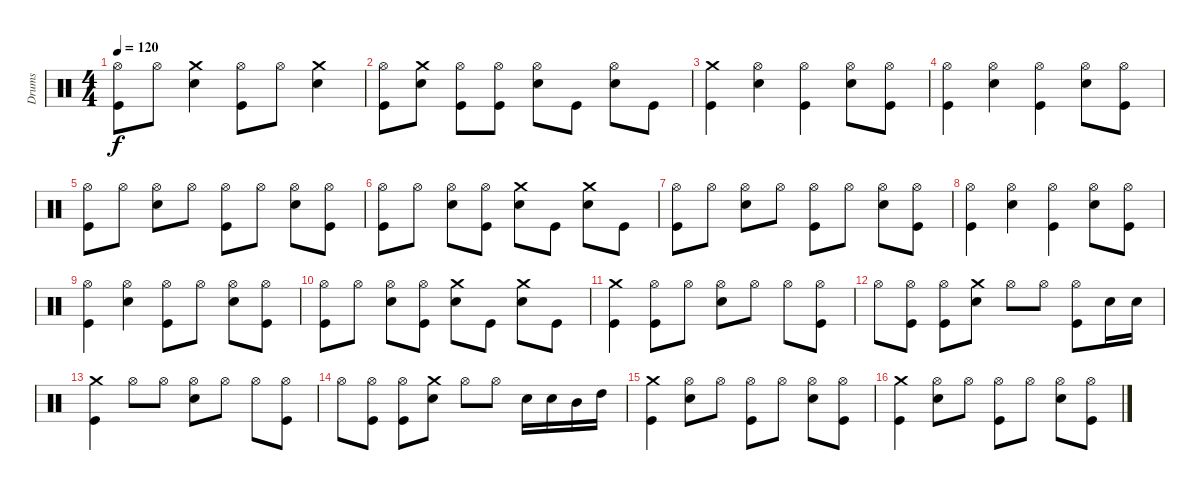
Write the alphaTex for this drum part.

\track ("Drums" "Drums") {instrument percussion}
\staff {score}
\articulation defaults
\ts (4 4)
\tempo 120
\clef neutral
\ks c
("Kick (hit)" "Hi-Hat (open)").8{dy f} "Hi-Hat (open)".8 ("Electric Snare (hit)" "Crash medium (hit)").4 ("Kick (hit)" "Hi-Hat (open)").8 "Hi-Hat (open)".8 ("Electric Snare (hit)" "Crash medium (hit)").4 |
("Kick (hit)" "Hi-Hat (open)").8 ("Electric Snare (hit)" "Crash medium (hit)").8 ("Kick (hit)" "Hi-Hat (open)").8 ("Kick (hit)" "Hi-Hat (open)").8 ("Electric Snare (hit)" "Hi-Hat (open)").8 "Kick (hit)".8 ("Electric Snare (hit)" "Hi-Hat (open)").8 "Kick (hit)".8 |
("Kick (hit)" "Crash medium (hit)").4 ("Electric Snare (hit)" "Hi-Hat (open)").4 ("Kick (hit)" "Hi-Hat (open)").4 ("Electric Snare (hit)" "Hi-Hat (open)").8 ("Kick (hit)" "Hi-Hat (open)").8 |
("Kick (hit)" "Hi-Hat (open)").4 ("Electric Snare (hit)" "Hi-Hat (open)").4 ("Kick (hit)" "Hi-Hat (open)").4 ("Electric Snare (hit)" "Hi-Hat (open)").8 ("Kick (hit)" "Hi-Hat (open)").8 |
("Kick (hit)" "Hi-Hat (open)").8 "Hi-Hat (open)".8 ("Electric Snare (hit)" "Hi-Hat (open)").8 "Hi-Hat (open)".8 ("Kick (hit)" "Hi-Hat (open)").8 "Hi-Hat (open)".8 ("Electric Snare (hit)" "Hi-Hat (open)").8 ("Kick (hit)" "Hi-Hat (open)").8 |
("Kick (hit)" "Hi-Hat (open)").8 "Hi-Hat (open)".8 ("Electric Snare (hit)" "Hi-Hat (open)").8 ("Kick (hit)" "Hi-Hat (open)").8 ("Electric Snare (hit)" "Crash medium (hit)").8 "Kick (hit)".8 ("Electric Snare (hit)" "Crash medium (hit)").8 "Kick (hit)".8 |
("Kick (hit)" "Hi-Hat (open)").8 "Hi-Hat (open)".8 ("Electric Snare (hit)" "Hi-Hat (open)").8 "Hi-Hat (open)".8 ("Kick (hit)" "Hi-Hat (open)").8 "Hi-Hat (open)".8 ("Electric Snare (hit)" "Hi-Hat (open)").8 ("Kick (hit)" "Hi-Hat (open)").8 |
("Kick (hit)" "Hi-Hat (open)").4 ("Electric Snare (hit)" "Hi-Hat (open)").4 ("Kick (hit)" "Hi-Hat (open)").4 ("Electric Snare (hit)" "Hi-Hat (open)").8 ("Kick (hit)" "Hi-Hat (open)").8 |
("Kick (hit)" "Hi-Hat (open)").4 ("Electric Snare (hit)" "Hi-Hat (open)").4 ("Kick (hit)" "Hi-Hat (open)").8 "Hi-Hat (open)".8 ("Electric Snare (hit)" "Hi-Hat (open)").8 ("Kick (hit)" "Hi-Hat (open)").8 |
("Kick (hit)" "Hi-Hat (open)").8 "Hi-Hat (open)".8 ("Electric Snare (hit)" "Hi-Hat (open)").8 ("Kick (hit)" "Hi-Hat (open)").8 ("Electric Snare (hit)" "Crash medium (hit)").8 "Kick (hit)".8 ("Electric Snare (hit)" "Crash medium (hit)").8 "Kick (hit)".8 |
("Kick (hit)" "Crash medium (hit)").4 ("Kick (hit)" "Hi-Hat (open)").8 "Hi-Hat (open)".8 ("Electric Snare (hit)" "Hi-Hat (open)").8 "Hi-Hat (open)".8 "Hi-Hat (open)".8 ("Kick (hit)" "Hi-Hat (open)").8 |
"Hi-Hat (open)".8 ("Kick (hit)" "Hi-Hat (open)").8 ("Kick (hit)" "Hi-Hat (open)").8 ("Electric Snare (hit)" "Crash medium (hit)").8 "Hi-Hat (open)".8 "Hi-Hat (open)".8 ("Kick (hit)" "Hi-Hat (open)").8 "Electric Snare (hit)".16 "Electric Snare (hit)".16 |
("Kick (hit)" "Crash medium (hit)").4 "Hi-Hat (open)".8 "Hi-Hat (open)".8 ("Electric Snare (hit)" "Hi-Hat (open)").8 "Hi-Hat (open)".8 "Hi-Hat (open)".8 ("Kick (hit)" "Hi-Hat (open)").8 |
"Hi-Hat (open)".8 ("Kick (hit)" "Hi-Hat (open)").8 ("Kick (hit)" "Hi-Hat (open)").8 ("Electric Snare (hit)" "Crash medium (hit)").8 "Hi-Hat (open)".8 "Hi-Hat (open)".8 "Electric Snare (hit)".16 "Electric Snare (hit)".16 "Mid Tom (hit)".16 "High Tom (hit)".16 |
("Kick (hit)" "Crash medium (hit)").4 ("Electric Snare (hit)" "Hi-Hat (open)").8 "Hi-Hat (open)".8 ("Kick (hit)" "Hi-Hat (open)").8 "Hi-Hat (open)".8 ("Electric Snare (hit)" "Hi-Hat (open)").8 ("Kick (hit)" "Hi-Hat (open)").8 |
("Kick (hit)" "Crash medium (hit)").4 ("Electric Snare (hit)" "Hi-Hat (open)").8 "Hi-Hat (open)".8 ("Kick (hit)" "Hi-Hat (open)").8 "Hi-Hat (open)".8 ("Electric Snare (hit)" "Hi-Hat (open)").8 ("Kick (hit)" "Hi-Hat (open)").8
